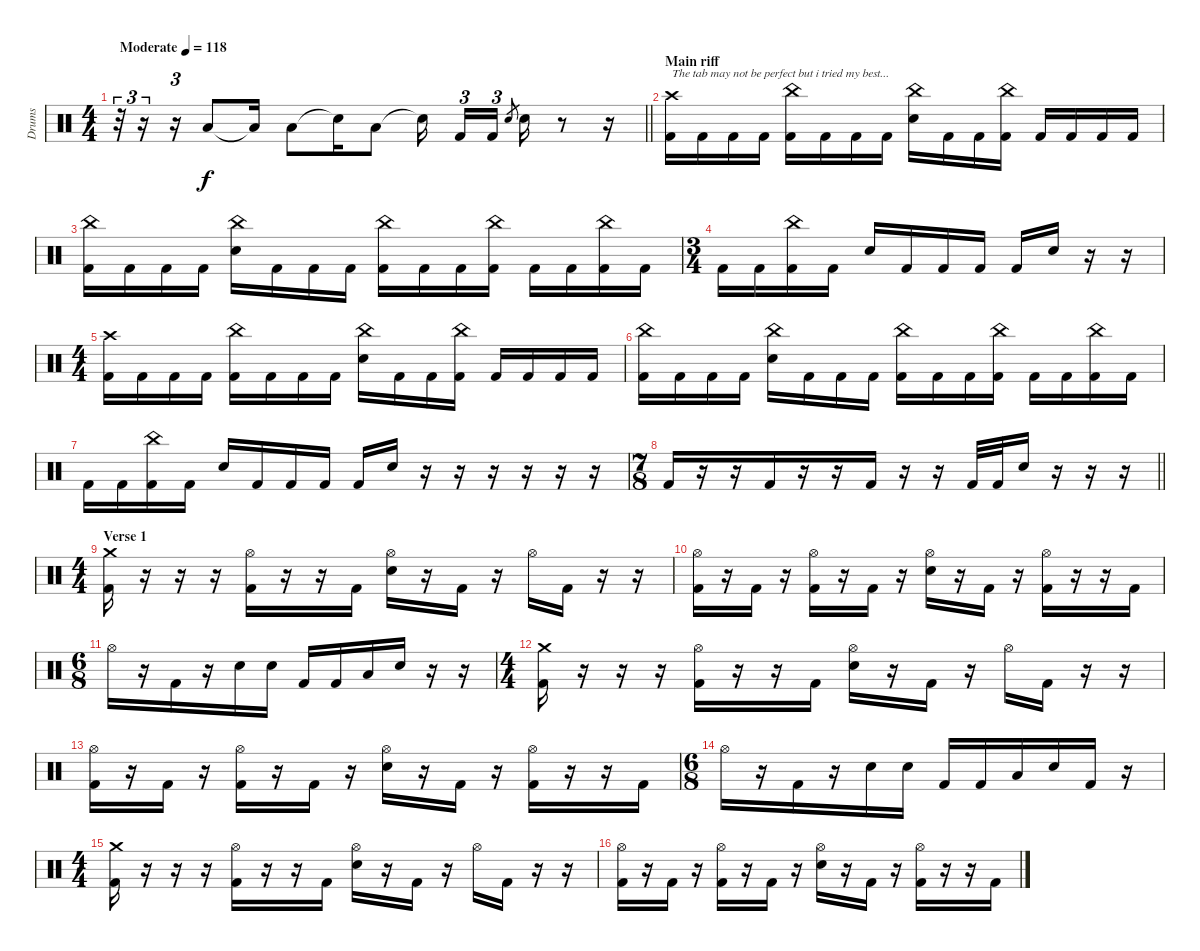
\track ("Drums" "Drums") {instrument percussion}
\staff {score}
\articulation defaults
\ts (4 4)
\tempo (118 "Moderate")
\clef neutral
\barLineRight lightlight
\ks c
r.32{tu (3 2) dy f} r.16{tu (3 2)} r.16{tu (3 2)} "Low Tom (hit)".8 "Low Tom (hit)"{t}.16 "Low Tom (hit)".8 "Snare (hit)"{t}.16 "Low Tom (hit)".8 "Snare (hit)"{t}.16{beam splitsecondary} "Kick (hit) 2".16{tu (3 2)} "Kick (hit) 2".16{tu (3 2)} "Electric Snare (hit)".8{gr} "Electric Snare (hit)".16 r.8 r.16 |
\section ("" "Main riff")
("Crash high (hit)" "Kick (hit) 2").16{txt "The tab may not be perfect but i tried my best..."} "Kick (hit) 2".16 "Kick (hit) 2".16 "Kick (hit) 2".16 ("China (hit)" "Kick (hit) 2").16 "Kick (hit) 2".16 "Kick (hit) 2".16 "Kick (hit) 2".16 ("China (hit)" "Electric Snare (hit)").16 "Kick (hit) 2".16 "Kick (hit) 2".16 ("China (hit)" "Kick (hit) 2").16 "Kick (hit) 2".16 "Kick (hit) 2".16 "Kick (hit) 2".16 "Kick (hit) 2".16 |
("China (hit)" "Kick (hit) 2").16 "Kick (hit) 2".16 "Kick (hit) 2".16 "Kick (hit) 2".16 ("China (hit)" "Electric Snare (hit)").16 "Kick (hit) 2".16 "Kick (hit) 2".16 "Kick (hit) 2".16 ("China (hit)" "Kick (hit) 2").16 "Kick (hit) 2".16 "Kick (hit) 2".16 ("China (hit)" "Kick (hit) 2").16 "Kick (hit) 2".16 "Kick (hit) 2".16 ("China (hit)" "Kick (hit) 2").16 "Kick (hit) 2".16 |
\ts (3 4)
"Kick (hit) 2".16 "Kick (hit) 2".16 ("China (hit)" "Kick (hit) 2").16 "Kick (hit) 2".16 "Electric Snare (hit)".16 "Kick (hit) 2".16 "Kick (hit) 2".16 "Kick (hit) 2".16 "Kick (hit) 2".16 "Electric Snare (hit)".16 r.16 r.16 |
\ts (4 4)
("Crash high (hit)" "Kick (hit) 2").16 "Kick (hit) 2".16 "Kick (hit) 2".16 "Kick (hit) 2".16 ("China (hit)" "Kick (hit) 2").16 "Kick (hit) 2".16 "Kick (hit) 2".16 "Kick (hit) 2".16 ("China (hit)" "Electric Snare (hit)").16 "Kick (hit) 2".16 "Kick (hit) 2".16 ("China (hit)" "Kick (hit) 2").16 "Kick (hit) 2".16 "Kick (hit) 2".16 "Kick (hit) 2".16 "Kick (hit) 2".16 |
("China (hit)" "Kick (hit) 2").16 "Kick (hit) 2".16 "Kick (hit) 2".16 "Kick (hit) 2".16 ("China (hit)" "Electric Snare (hit)").16 "Kick (hit) 2".16 "Kick (hit) 2".16 "Kick (hit) 2".16 ("China (hit)" "Kick (hit) 2").16 "Kick (hit) 2".16 "Kick (hit) 2".16 ("China (hit)" "Kick (hit) 2").16 "Kick (hit) 2".16 "Kick (hit) 2".16 ("China (hit)" "Kick (hit) 2").16 "Kick (hit) 2".16 |
"Kick (hit) 2".16 "Kick (hit) 2".16 ("China (hit)" "Kick (hit) 2").16 "Kick (hit) 2".16 "Electric Snare (hit)".16 "Kick (hit) 2".16 "Kick (hit) 2".16 "Kick (hit) 2".16 "Kick (hit) 2".16 "Electric Snare (hit)".16 r.16 r.16 r.16 r.16 r.16 r.16 |
\ts (7 8)
\barLineRight lightlight "Kick (hit) 2".16
r.16 r.16 "Kick (hit) 2".16 r.16 r.16 "Kick (hit) 2".16 r.16 r.16 "Kick (hit) 2".32 "Kick (hit) 2".32 "Electric Snare (hit)".16 r.16 r.16 r.16 |
\ts (4 4)
\section ("" "Verse 1")
("Crash medium (hit)" "Kick (hit) 2").16 r.16 r.16 r.16 ("Hi-Hat (open)" "Kick (hit) 2").16 r.16 r.16 "Kick (hit) 2".16 ("Hi-Hat (open)" "Electric Snare (hit)").16 r.16 "Kick (hit) 2".16 r.16 "Hi-Hat (open)".16 "Kick (hit) 2".16 r.16 r.16 |
("Hi-Hat (open)" "Kick (hit) 2").16 r.16 "Kick (hit) 2".16 r.16 ("Hi-Hat (open)" "Kick (hit) 2").16 r.16 "Kick (hit) 2".16 r.16 ("Hi-Hat (open)" "Electric Snare (hit)").16 r.16 "Kick (hit) 2".16 r.16 ("Hi-Hat (open)" "Kick (hit) 2").16 r.16 r.16 "Kick (hit) 2".16 |
\ts (6 8)
"Hi-Hat (open)".16 r.16 "Kick (hit) 2".16 r.16 "Electric Snare (hit)".16 "Electric Snare (hit)".16 "Kick (hit) 2".16 "Kick (hit) 2".16 "Low Tom (hit)".16 "Electric Snare (hit)".16 r.16 r.16 |
\ts (4 4)
("Crash medium (hit)" "Kick (hit) 2").16 r.16 r.16 r.16 ("Hi-Hat (open)" "Kick (hit) 2").16 r.16 r.16 "Kick (hit) 2".16 ("Hi-Hat (open)" "Electric Snare (hit)").16 r.16 "Kick (hit) 2".16 r.16 "Hi-Hat (open)".16 "Kick (hit) 2".16 r.16 r.16 |
("Hi-Hat (open)" "Kick (hit) 2").16 r.16 "Kick (hit) 2".16 r.16 ("Hi-Hat (open)" "Kick (hit) 2").16 r.16 "Kick (hit) 2".16 r.16 ("Hi-Hat (open)" "Electric Snare (hit)").16 r.16 "Kick (hit) 2".16 r.16 ("Hi-Hat (open)" "Kick (hit) 2").16 r.16 r.16 "Kick (hit) 2".16 |
\ts (6 8)
"Hi-Hat (open)".16 r.16 "Kick (hit) 2".16 r.16 "Electric Snare (hit)".16 "Electric Snare (hit)".16 "Kick (hit) 2".16 "Kick (hit) 2".16 "Low Tom (hit)".16 "Electric Snare (hit)".16 "Kick (hit) 2".16 r.16 |
\ts (4 4)
("Crash medium (hit)" "Kick (hit) 2").16 r.16 r.16 r.16 ("Hi-Hat (open)" "Kick (hit) 2").16 r.16 r.16 "Kick (hit) 2".16 ("Hi-Hat (open)" "Electric Snare (hit)").16 r.16 "Kick (hit) 2".16 r.16 "Hi-Hat (open)".16 "Kick (hit) 2".16 r.16 r.16 |
("Hi-Hat (open)" "Kick (hit) 2").16 r.16 "Kick (hit) 2".16 r.16 ("Hi-Hat (open)" "Kick (hit) 2").16 r.16 "Kick (hit) 2".16 r.16 ("Hi-Hat (open)" "Electric Snare (hit)").16 r.16 "Kick (hit) 2".16 r.16 ("Hi-Hat (open)" "Kick (hit) 2").16 r.16 r.16 "Kick (hit) 2".16
